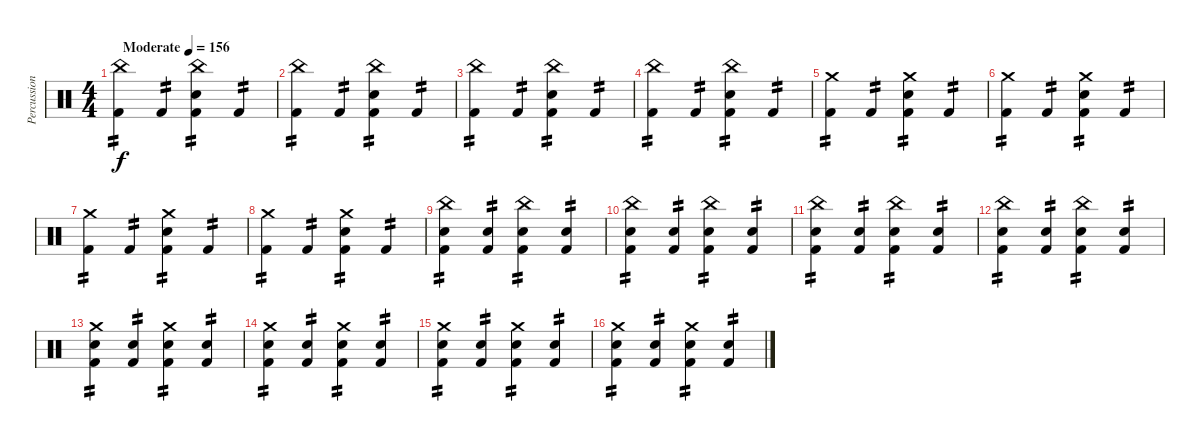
\track ("Percussion" "Percussion") {instrument percussion}
\staff {score}
\articulation defaults
\ts (4 4)
\tempo (156 "Moderate")
\clef neutral
\ks c
("China (hit)" "Kick (hit) 2").4{tp 2 dy f} "Kick (hit) 2".4{tp 2} ("China (hit)" "Snare (hit) 2" "Kick (hit) 2").4{tp 2} "Kick (hit) 2".4{tp 2} |
("China (hit)" "Kick (hit) 2").4{tp 2} "Kick (hit) 2".4{tp 2} ("China (hit)" "Snare (hit) 2" "Kick (hit) 2").4{tp 2} "Kick (hit) 2".4{tp 2} |
("China (hit)" "Kick (hit) 2").4{tp 2} "Kick (hit) 2".4{tp 2} ("China (hit)" "Snare (hit) 2" "Kick (hit) 2").4{tp 2} "Kick (hit) 2".4{tp 2} |
("China (hit)" "Kick (hit) 2").4{tp 2} "Kick (hit) 2".4{tp 2} ("China (hit)" "Snare (hit) 2" "Kick (hit) 2").4{tp 2} "Kick (hit) 2".4{tp 2} |
("Crash medium (hit)" "Kick (hit) 2").4{tp 2} "Kick (hit) 2".4{tp 2} ("Crash medium (hit)" "Snare (hit) 2" "Kick (hit) 2").4{tp 2} "Kick (hit) 2".4{tp 2} |
("Crash medium (hit)" "Kick (hit) 2").4{tp 2} "Kick (hit) 2".4{tp 2} ("Crash medium (hit)" "Snare (hit) 2" "Kick (hit) 2").4{tp 2} "Kick (hit) 2".4{tp 2} |
("Crash medium (hit)" "Kick (hit) 2").4{tp 2} "Kick (hit) 2".4{tp 2} ("Crash medium (hit)" "Snare (hit) 2" "Kick (hit) 2").4{tp 2} "Kick (hit) 2".4{tp 2} |
("Crash medium (hit)" "Kick (hit) 2").4{tp 2} "Kick (hit) 2".4{tp 2} ("Crash medium (hit)" "Snare (hit) 2" "Kick (hit) 2").4{tp 2} "Kick (hit) 2".4{tp 2} |
("China (hit)" "Snare (hit) 2" "Kick (hit) 2").4{tp 2} ("Snare (hit) 2" "Kick (hit) 2").4{tp 2} ("China (hit)" "Snare (hit) 2" "Kick (hit) 2").4{tp 2} ("Snare (hit) 2" "Kick (hit) 2").4{tp 2} |
("China (hit)" "Snare (hit) 2" "Kick (hit) 2").4{tp 2} ("Snare (hit) 2" "Kick (hit) 2").4{tp 2} ("China (hit)" "Snare (hit) 2" "Kick (hit) 2").4{tp 2} ("Snare (hit) 2" "Kick (hit) 2").4{tp 2} |
("China (hit)" "Snare (hit) 2" "Kick (hit) 2").4{tp 2} ("Snare (hit) 2" "Kick (hit) 2").4{tp 2} ("China (hit)" "Snare (hit) 2" "Kick (hit) 2").4{tp 2} ("Snare (hit) 2" "Kick (hit) 2").4{tp 2} |
("China (hit)" "Snare (hit) 2" "Kick (hit) 2").4{tp 2} ("Snare (hit) 2" "Kick (hit) 2").4{tp 2} ("China (hit)" "Snare (hit) 2" "Kick (hit) 2").4{tp 2} ("Snare (hit) 2" "Kick (hit) 2").4{tp 2} |
("Crash medium (hit)" "Snare (hit) 2" "Kick (hit) 2").4{tp 2} ("Snare (hit) 2" "Kick (hit) 2").4{tp 2} ("Crash medium (hit)" "Snare (hit) 2" "Kick (hit) 2").4{tp 2} ("Snare (hit) 2" "Kick (hit) 2").4{tp 2} |
("Crash medium (hit)" "Snare (hit) 2" "Kick (hit) 2").4{tp 2} ("Snare (hit) 2" "Kick (hit) 2").4{tp 2} ("Crash medium (hit)" "Snare (hit) 2" "Kick (hit) 2").4{tp 2} ("Snare (hit) 2" "Kick (hit) 2").4{tp 2} |
("Crash medium (hit)" "Snare (hit) 2" "Kick (hit) 2").4{tp 2} ("Snare (hit) 2" "Kick (hit) 2").4{tp 2} ("Crash medium (hit)" "Snare (hit) 2" "Kick (hit) 2").4{tp 2} ("Snare (hit) 2" "Kick (hit) 2").4{tp 2} |
("Crash medium (hit)" "Snare (hit) 2" "Kick (hit) 2").4{tp 2} ("Snare (hit) 2" "Kick (hit) 2").4{tp 2} ("Crash medium (hit)" "Snare (hit) 2" "Kick (hit) 2").4{tp 2} ("Snare (hit) 2" "Kick (hit) 2").4{tp 2}
